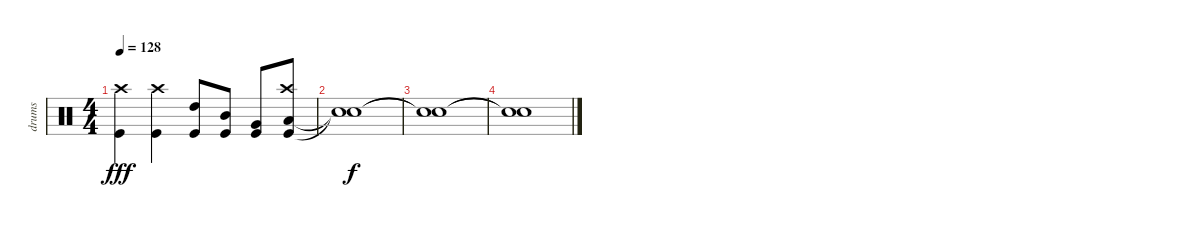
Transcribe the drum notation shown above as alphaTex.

\track ("drums" "drums") {instrument percussion}
\staff {score}
\articulation defaults
\ts (4 4)
\tempo 128
\clef neutral
\ks c
("Kick (hit)" "Crash high (hit)").4{dy fff} ("Crash high (hit)" "Kick (hit)").4 ("High Tom (hit)" "Kick (hit)").8 ("Mid Tom (hit)" "Kick (hit)").8 ("Very Low Tom (hit)" "Kick (hit)").8 ("Low Tom (hit)" "Kick (hit)" "Crash high (hit)").8 |
("Snare (hit)"{t} "Snare (hit)"{t}).1{dy f} |
("Snare (hit)"{t} "Snare (hit)"{t}).1 |
("Snare (hit)"{t} "Snare (hit)"{t}).1
